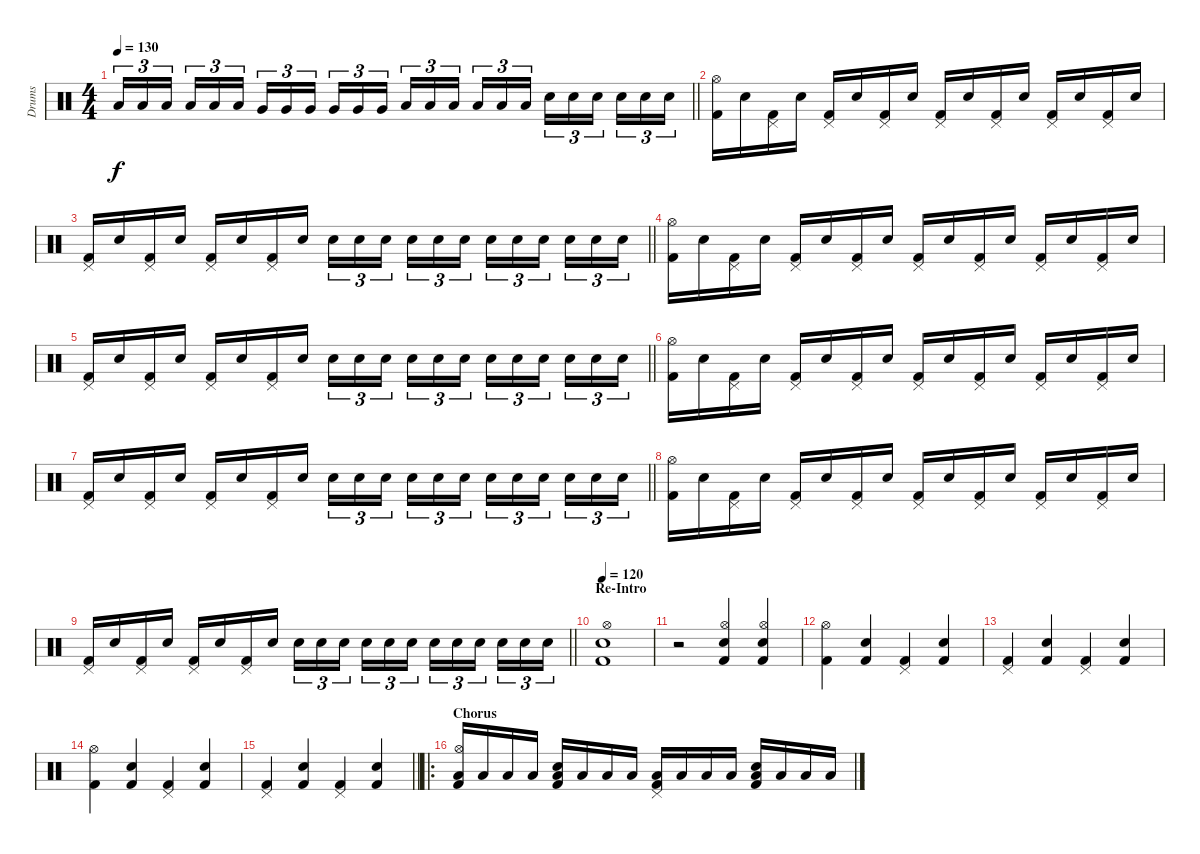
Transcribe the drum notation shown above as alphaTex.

\track ("Drums" "Drums") {instrument percussion}
\staff {score}
\articulation defaults
\ts (4 4)
\tempo 130
\clef neutral
\barLineRight lightlight
\ks c "Low Tom (hit)".16{tu (3 2) dy f} "Low Tom (hit)".16{tu (3 2)} "Low Tom (hit)".16{tu (3 2) beam splitsecondary} "Low Tom (hit)".16{tu (3 2)} "Low Tom (hit)".16{tu (3 2)} "Low Tom (hit)".16{tu (3 2)} "Very Low Tom (hit)".16{tu (3 2)} "Very Low Tom (hit)".16{tu (3 2)} "Very Low Tom (hit)".16{tu (3 2) beam splitsecondary} "Very Low Tom (hit)".16{tu (3 2)} "Very Low Tom (hit)".16{tu (3 2)} "Very Low Tom (hit)".16{tu (3 2)} "Low Floor Tom (hit)".16{tu (3 2)} "Low Floor Tom (hit)".16{tu (3 2)} "Low Floor Tom (hit)".16{tu (3 2) beam splitsecondary} "Low Floor Tom (hit)".16{tu (3 2)} "Low Floor Tom (hit)".16{tu (3 2)} "Low Floor Tom (hit)".16{tu (3 2)} "Snare (hit) 2".16{tu (3 2)} "Snare (hit) 2".16{tu (3 2)} "Snare (hit) 2".16{tu (3 2) beam splitsecondary} "Snare (hit) 2".16{tu (3 2)} "Snare (hit) 2".16{tu (3 2)} "Snare (hit) 2".16{tu (3 2)}
|
("Hi-Hat (open)" "Kick (hit) 2").16 "Snare (hit) 2".16 ("Pedal Hi-Hat (hit)" "Kick (hit) 2").16 "Snare (hit) 2".16 ("Pedal Hi-Hat (hit)" "Kick (hit) 2").16 "Snare (hit) 2".16 ("Pedal Hi-Hat (hit)" "Kick (hit) 2").16 "Snare (hit) 2".16 ("Pedal Hi-Hat (hit)" "Kick (hit) 2").16 "Snare (hit) 2".16 ("Pedal Hi-Hat (hit)" "Kick (hit) 2").16 "Snare (hit) 2".16 ("Pedal Hi-Hat (hit)" "Kick (hit) 2").16 "Snare (hit) 2".16 ("Pedal Hi-Hat (hit)" "Kick (hit) 2").16 "Snare (hit) 2".16 |
\barLineRight lightlight
("Pedal Hi-Hat (hit)" "Kick (hit) 2").16 "Snare (hit) 2".16 ("Pedal Hi-Hat (hit)" "Kick (hit) 2").16 "Snare (hit) 2".16 ("Pedal Hi-Hat (hit)" "Kick (hit) 2").16 "Snare (hit) 2".16 ("Pedal Hi-Hat (hit)" "Kick (hit) 2").16 "Snare (hit) 2".16 "Snare (hit) 2".16{tu (3 2)} "Snare (hit) 2".16{tu (3 2)} "Snare (hit) 2".16{tu (3 2) beam splitsecondary} "Snare (hit) 2".16{tu (3 2)} "Snare (hit) 2".16{tu (3 2)} "Snare (hit) 2".16{tu (3 2)} "Snare (hit) 2".16{tu (3 2)} "Snare (hit) 2".16{tu (3 2)} "Snare (hit) 2".16{tu (3 2) beam splitsecondary} "Snare (hit) 2".16{tu (3 2)} "Snare (hit) 2".16{tu (3 2)} "Snare (hit) 2".16{tu (3 2)} |
("Hi-Hat (open)" "Kick (hit) 2").16 "Snare (hit) 2".16 ("Pedal Hi-Hat (hit)" "Kick (hit) 2").16 "Snare (hit) 2".16 ("Pedal Hi-Hat (hit)" "Kick (hit) 2").16 "Snare (hit) 2".16 ("Pedal Hi-Hat (hit)" "Kick (hit) 2").16 "Snare (hit) 2".16 ("Pedal Hi-Hat (hit)" "Kick (hit) 2").16 "Snare (hit) 2".16 ("Pedal Hi-Hat (hit)" "Kick (hit) 2").16 "Snare (hit) 2".16 ("Pedal Hi-Hat (hit)" "Kick (hit) 2").16 "Snare (hit) 2".16 ("Pedal Hi-Hat (hit)" "Kick (hit) 2").16 "Snare (hit) 2".16 |
\barLineRight lightlight
("Pedal Hi-Hat (hit)" "Kick (hit) 2").16 "Snare (hit) 2".16 ("Pedal Hi-Hat (hit)" "Kick (hit) 2").16 "Snare (hit) 2".16 ("Pedal Hi-Hat (hit)" "Kick (hit) 2").16 "Snare (hit) 2".16 ("Pedal Hi-Hat (hit)" "Kick (hit) 2").16 "Snare (hit) 2".16 "Snare (hit) 2".16{tu (3 2)} "Snare (hit) 2".16{tu (3 2)} "Snare (hit) 2".16{tu (3 2) beam splitsecondary} "Snare (hit) 2".16{tu (3 2)} "Snare (hit) 2".16{tu (3 2)} "Snare (hit) 2".16{tu (3 2)} "Snare (hit) 2".16{tu (3 2)} "Snare (hit) 2".16{tu (3 2)} "Snare (hit) 2".16{tu (3 2) beam splitsecondary} "Snare (hit) 2".16{tu (3 2)} "Snare (hit) 2".16{tu (3 2)} "Snare (hit) 2".16{tu (3 2)} |
("Hi-Hat (open)" "Kick (hit) 2").16 "Snare (hit) 2".16 ("Pedal Hi-Hat (hit)" "Kick (hit) 2").16 "Snare (hit) 2".16 ("Pedal Hi-Hat (hit)" "Kick (hit) 2").16 "Snare (hit) 2".16 ("Pedal Hi-Hat (hit)" "Kick (hit) 2").16 "Snare (hit) 2".16 ("Pedal Hi-Hat (hit)" "Kick (hit) 2").16 "Snare (hit) 2".16 ("Pedal Hi-Hat (hit)" "Kick (hit) 2").16 "Snare (hit) 2".16 ("Pedal Hi-Hat (hit)" "Kick (hit) 2").16 "Snare (hit) 2".16 ("Pedal Hi-Hat (hit)" "Kick (hit) 2").16 "Snare (hit) 2".16 |
\barLineRight lightlight
("Pedal Hi-Hat (hit)" "Kick (hit) 2").16 "Snare (hit) 2".16 ("Pedal Hi-Hat (hit)" "Kick (hit) 2").16 "Snare (hit) 2".16 ("Pedal Hi-Hat (hit)" "Kick (hit) 2").16 "Snare (hit) 2".16 ("Pedal Hi-Hat (hit)" "Kick (hit) 2").16 "Snare (hit) 2".16 "Snare (hit) 2".16{tu (3 2)} "Snare (hit) 2".16{tu (3 2)} "Snare (hit) 2".16{tu (3 2) beam splitsecondary} "Snare (hit) 2".16{tu (3 2)} "Snare (hit) 2".16{tu (3 2)} "Snare (hit) 2".16{tu (3 2)} "Snare (hit) 2".16{tu (3 2)} "Snare (hit) 2".16{tu (3 2)} "Snare (hit) 2".16{tu (3 2) beam splitsecondary} "Snare (hit) 2".16{tu (3 2)} "Snare (hit) 2".16{tu (3 2)} "Snare (hit) 2".16{tu (3 2)} |
("Hi-Hat (open)" "Kick (hit) 2").16 "Snare (hit) 2".16 ("Pedal Hi-Hat (hit)" "Kick (hit) 2").16 "Snare (hit) 2".16 ("Pedal Hi-Hat (hit)" "Kick (hit) 2").16 "Snare (hit) 2".16 ("Pedal Hi-Hat (hit)" "Kick (hit) 2").16 "Snare (hit) 2".16 ("Pedal Hi-Hat (hit)" "Kick (hit) 2").16 "Snare (hit) 2".16 ("Pedal Hi-Hat (hit)" "Kick (hit) 2").16 "Snare (hit) 2".16 ("Pedal Hi-Hat (hit)" "Kick (hit) 2").16 "Snare (hit) 2".16 ("Pedal Hi-Hat (hit)" "Kick (hit) 2").16 "Snare (hit) 2".16 |
\barLineRight lightlight
("Pedal Hi-Hat (hit)" "Kick (hit) 2").16 "Snare (hit) 2".16 ("Pedal Hi-Hat (hit)" "Kick (hit) 2").16 "Snare (hit) 2".16 ("Pedal Hi-Hat (hit)" "Kick (hit) 2").16 "Snare (hit) 2".16 ("Pedal Hi-Hat (hit)" "Kick (hit) 2").16 "Snare (hit) 2".16 "Snare (hit) 2".16{tu (3 2)} "Snare (hit) 2".16{tu (3 2)} "Snare (hit) 2".16{tu (3 2) beam splitsecondary} "Snare (hit) 2".16{tu (3 2)} "Snare (hit) 2".16{tu (3 2)} "Snare (hit) 2".16{tu (3 2)} "Snare (hit) 2".16{tu (3 2)} "Snare (hit) 2".16{tu (3 2)} "Snare (hit) 2".16{tu (3 2) beam splitsecondary} "Snare (hit) 2".16{tu (3 2)} "Snare (hit) 2".16{tu (3 2)} "Snare (hit) 2".16{tu (3 2)} |
\section ("" "Re-Intro")
\tempo 120
("Hi-Hat (open)" "Snare (hit) 2" "Kick (hit) 2").1 |
r.2 ("Hi-Hat (open)" "Snare (hit) 2" "Kick (hit) 2").4 ("Hi-Hat (open)" "Snare (hit) 2" "Kick (hit) 2").4 |
("Hi-Hat (open)" "Kick (hit) 2").4 ("Snare (hit) 2" "Kick (hit) 2").4 ("Pedal Hi-Hat (hit)" "Kick (hit) 2").4 ("Snare (hit) 2" "Kick (hit) 2").4 |
("Pedal Hi-Hat (hit)" "Kick (hit) 2").4 ("Snare (hit) 2" "Kick (hit) 2").4 ("Pedal Hi-Hat (hit)" "Kick (hit) 2").4 ("Snare (hit) 2" "Kick (hit) 2").4 |
("Hi-Hat (open)" "Kick (hit) 2").4 ("Snare (hit) 2" "Kick (hit) 2").4 ("Pedal Hi-Hat (hit)" "Kick (hit) 2").4 ("Snare (hit) 2" "Kick (hit) 2").4 |
\barLineRight lightlight
("Pedal Hi-Hat (hit)" "Kick (hit) 2").4 ("Snare (hit) 2" "Kick (hit) 2").4 ("Pedal Hi-Hat (hit)" "Kick (hit) 2").4 ("Snare (hit) 2" "Kick (hit) 2").4 |
\ro
\section ("" "Chorus")
("Hi-Hat (open)" "Low Tom (hit)" "Kick (hit) 2").16 "Low Tom (hit)".16 "Low Tom (hit)".16 "Low Tom (hit)".16 ("Snare (hit) 2" "Low Tom (hit)" "Kick (hit) 2").16 "Low Tom (hit)".16 "Low Tom (hit)".16 "Low Tom (hit)".16 ("Pedal Hi-Hat (hit)" "Low Tom (hit)" "Kick (hit) 2").16 "Low Tom (hit)".16 "Low Tom (hit)".16 "Low Tom (hit)".16 ("Snare (hit) 2" "Low Tom (hit)" "Kick (hit) 2").16 "Low Tom (hit)".16 "Low Tom (hit)".16 "Low Tom (hit)".16
